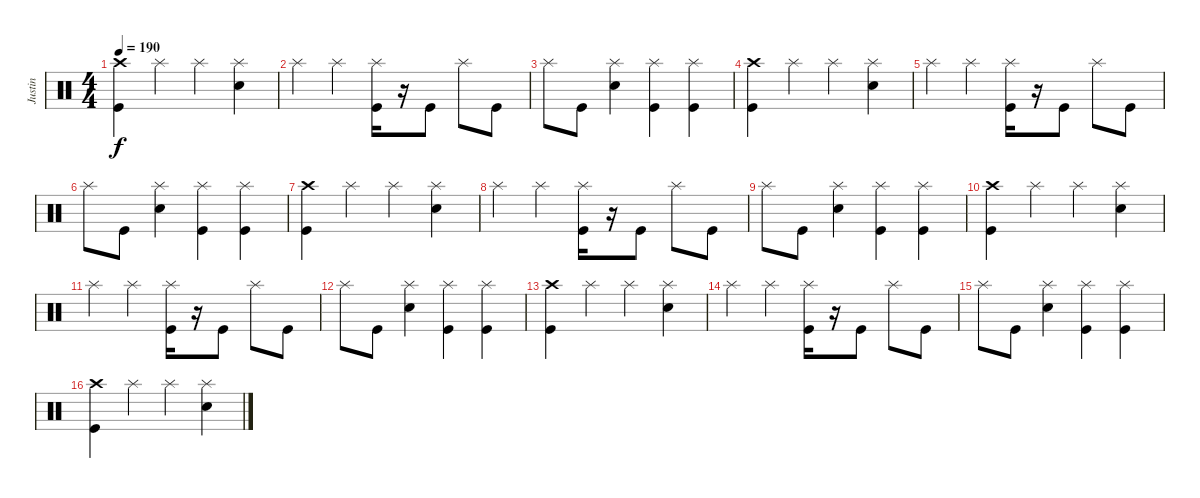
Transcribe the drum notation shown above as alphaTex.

\track ("Justin" "Justin") {instrument percussion}
\staff {score}
\articulation defaults
\ts (4 4)
\tempo 190
\clef neutral
\ks c
("Crash high (hit)" "Kick (hit)").4{dy f} "Splash (hit)".4 "Splash (hit)".4 ("Splash (hit)" "Electric Snare (hit)").4 |
"Splash (hit)".4 "Splash (hit)".4 ("Splash (hit)" "Kick (hit)").16 r.16 "Kick (hit)".8 "Splash (hit)".8 "Kick (hit)".8 |
"Splash (hit)".8 "Kick (hit)".8 ("Splash (hit)" "Electric Snare (hit)").4 ("Splash (hit)" "Kick (hit)").4 ("Splash (hit)" "Kick (hit)").4 |
("Crash high (hit)" "Kick (hit)").4 "Splash (hit)".4 "Splash (hit)".4 ("Splash (hit)" "Electric Snare (hit)").4 |
"Splash (hit)".4 "Splash (hit)".4 ("Splash (hit)" "Kick (hit)").16 r.16 "Kick (hit)".8 "Splash (hit)".8 "Kick (hit)".8 |
"Splash (hit)".8 "Kick (hit)".8 ("Splash (hit)" "Electric Snare (hit)").4 ("Splash (hit)" "Kick (hit)").4 ("Splash (hit)" "Kick (hit)").4 |
("Crash high (hit)" "Kick (hit)").4 "Splash (hit)".4 "Splash (hit)".4 ("Splash (hit)" "Electric Snare (hit)").4 |
"Splash (hit)".4 "Splash (hit)".4 ("Splash (hit)" "Kick (hit)").16 r.16 "Kick (hit)".8 "Splash (hit)".8 "Kick (hit)".8 |
"Splash (hit)".8 "Kick (hit)".8 ("Splash (hit)" "Electric Snare (hit)").4 ("Splash (hit)" "Kick (hit)").4 ("Splash (hit)" "Kick (hit)").4 |
("Crash high (hit)" "Kick (hit)").4 "Splash (hit)".4 "Splash (hit)".4 ("Splash (hit)" "Electric Snare (hit)").4 |
"Splash (hit)".4 "Splash (hit)".4 ("Splash (hit)" "Kick (hit)").16 r.16 "Kick (hit)".8 "Splash (hit)".8 "Kick (hit)".8 |
"Splash (hit)".8 "Kick (hit)".8 ("Splash (hit)" "Electric Snare (hit)").4 ("Splash (hit)" "Kick (hit)").4 ("Splash (hit)" "Kick (hit)").4 |
("Crash high (hit)" "Kick (hit)").4 "Splash (hit)".4 "Splash (hit)".4 ("Splash (hit)" "Electric Snare (hit)").4 |
"Splash (hit)".4 "Splash (hit)".4 ("Splash (hit)" "Kick (hit)").16 r.16 "Kick (hit)".8 "Splash (hit)".8 "Kick (hit)".8 |
"Splash (hit)".8 "Kick (hit)".8 ("Splash (hit)" "Electric Snare (hit)").4 ("Splash (hit)" "Kick (hit)").4 ("Splash (hit)" "Kick (hit)").4 |
("Crash high (hit)" "Kick (hit)").4 "Splash (hit)".4 "Splash (hit)".4 ("Splash (hit)" "Electric Snare (hit)").4
